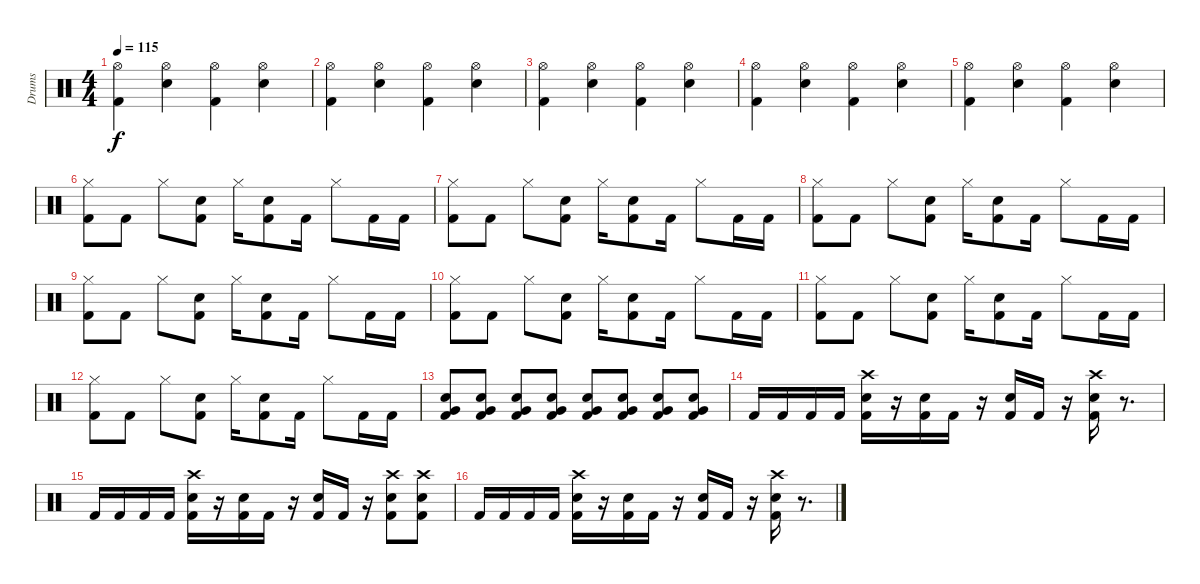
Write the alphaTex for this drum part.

\track ("Drums" "Drums") {instrument percussion}
\staff {score}
\articulation defaults
\ts (4 4)
\tempo 115
\clef neutral
\ks c
("Hi-Hat (open)" "Kick (hit) 2").4{dy f} ("Hi-Hat (open)" "Snare (hit) 2").4 ("Hi-Hat (open)" "Kick (hit) 2").4 ("Hi-Hat (open)" "Snare (hit) 2").4 |
("Hi-Hat (open)" "Kick (hit) 2").4 ("Hi-Hat (open)" "Snare (hit) 2").4 ("Hi-Hat (open)" "Kick (hit) 2").4 ("Hi-Hat (open)" "Snare (hit) 2").4 |
("Hi-Hat (open)" "Kick (hit) 2").4 ("Hi-Hat (open)" "Snare (hit) 2").4 ("Hi-Hat (open)" "Kick (hit) 2").4 ("Hi-Hat (open)" "Snare (hit) 2").4 |
("Hi-Hat (open)" "Kick (hit) 2").4 ("Hi-Hat (open)" "Snare (hit) 2").4 ("Hi-Hat (open)" "Kick (hit) 2").4 ("Hi-Hat (open)" "Snare (hit) 2").4 |
("Hi-Hat (open)" "Kick (hit) 2").4 ("Hi-Hat (open)" "Snare (hit) 2").4 ("Hi-Hat (open)" "Kick (hit) 2").4 ("Hi-Hat (open)" "Snare (hit) 2").4 |
("Hi-Hat (closed)" "Kick (hit) 2").8 "Kick (hit) 2".8 "Hi-Hat (closed)".8 ("Snare (hit) 2" "Kick (hit) 2").8 "Hi-Hat (closed)".16 ("Snare (hit) 2" "Kick (hit) 2").8 "Kick (hit) 2".16 "Hi-Hat (closed)".8 "Kick (hit) 2".16 "Kick (hit) 2".16 |
("Hi-Hat (closed)" "Kick (hit) 2").8 "Kick (hit) 2".8 "Hi-Hat (closed)".8 ("Snare (hit) 2" "Kick (hit) 2").8 "Hi-Hat (closed)".16 ("Snare (hit) 2" "Kick (hit) 2").8 "Kick (hit) 2".16 "Hi-Hat (closed)".8 "Kick (hit) 2".16 "Kick (hit) 2".16 |
("Hi-Hat (closed)" "Kick (hit) 2").8 "Kick (hit) 2".8 "Hi-Hat (closed)".8 ("Snare (hit) 2" "Kick (hit) 2").8 "Hi-Hat (closed)".16 ("Snare (hit) 2" "Kick (hit) 2").8 "Kick (hit) 2".16 "Hi-Hat (closed)".8 "Kick (hit) 2".16 "Kick (hit) 2".16 |
("Hi-Hat (closed)" "Kick (hit) 2").8 "Kick (hit) 2".8 "Hi-Hat (closed)".8 ("Snare (hit) 2" "Kick (hit) 2").8 "Hi-Hat (closed)".16 ("Snare (hit) 2" "Kick (hit) 2").8 "Kick (hit) 2".16 "Hi-Hat (closed)".8 "Kick (hit) 2".16 "Kick (hit) 2".16 |
("Hi-Hat (closed)" "Kick (hit) 2").8 "Kick (hit) 2".8 "Hi-Hat (closed)".8 ("Snare (hit) 2" "Kick (hit) 2").8 "Hi-Hat (closed)".16 ("Snare (hit) 2" "Kick (hit) 2").8 "Kick (hit) 2".16 "Hi-Hat (closed)".8 "Kick (hit) 2".16 "Kick (hit) 2".16 |
("Hi-Hat (closed)" "Kick (hit) 2").8 "Kick (hit) 2".8 "Hi-Hat (closed)".8 ("Snare (hit) 2" "Kick (hit) 2").8 "Hi-Hat (closed)".16 ("Snare (hit) 2" "Kick (hit) 2").8 "Kick (hit) 2".16 "Hi-Hat (closed)".8 "Kick (hit) 2".16 "Kick (hit) 2".16 |
("Hi-Hat (closed)" "Kick (hit) 2").8 "Kick (hit) 2".8 "Hi-Hat (closed)".8 ("Snare (hit) 2" "Kick (hit) 2").8 "Hi-Hat (closed)".16 ("Snare (hit) 2" "Kick (hit) 2").8 "Kick (hit) 2".16 "Hi-Hat (closed)".8 "Kick (hit) 2".16 "Kick (hit) 2".16 |
("Very Low Tom (hit)" "Snare (hit) 2" "Kick (hit) 2").8 ("Very Low Tom (hit)" "Snare (hit) 2" "Kick (hit) 2").8 ("Very Low Tom (hit)" "Snare (hit) 2" "Kick (hit) 2").8 ("Very Low Tom (hit)" "Snare (hit) 2" "Kick (hit) 2").8 ("Very Low Tom (hit)" "Snare (hit) 2" "Kick (hit) 2").8 ("Very Low Tom (hit)" "Snare (hit) 2" "Kick (hit) 2").8 ("Very Low Tom (hit)" "Snare (hit) 2" "Kick (hit) 2").8 ("Very Low Tom (hit)" "Snare (hit) 2" "Kick (hit) 2").8 |
"Kick (hit) 2".16 "Kick (hit) 2".16 "Kick (hit) 2".16 "Kick (hit) 2".16 ("Crash high (hit)" "Snare (hit) 2" "Kick (hit) 2").16 r.16 ("Snare (hit) 2" "Kick (hit) 2").16 "Kick (hit) 2".16 r.16 ("Snare (hit) 2" "Kick (hit) 2").16 "Kick (hit) 2".16 r.16 ("Crash high (hit)" "Snare (hit) 2" "Kick (hit) 2").16 r.8{d} |
"Kick (hit) 2".16 "Kick (hit) 2".16 "Kick (hit) 2".16 "Kick (hit) 2".16 ("Crash high (hit)" "Snare (hit) 2" "Kick (hit) 2").16 r.16 ("Snare (hit) 2" "Kick (hit) 2").16 "Kick (hit) 2".16 r.16 ("Snare (hit) 2" "Kick (hit) 2").16 "Kick (hit) 2".16 r.16 ("Crash high (hit)" "Snare (hit) 2" "Kick (hit) 2").8 ("Crash high (hit)" "Snare (hit) 2" "Kick (hit) 2").8 |
"Kick (hit) 2".16 "Kick (hit) 2".16 "Kick (hit) 2".16 "Kick (hit) 2".16 ("Crash high (hit)" "Snare (hit) 2" "Kick (hit) 2").16 r.16 ("Snare (hit) 2" "Kick (hit) 2").16 "Kick (hit) 2".16 r.16 ("Snare (hit) 2" "Kick (hit) 2").16 "Kick (hit) 2".16 r.16 ("Crash high (hit)" "Snare (hit) 2" "Kick (hit) 2").16 r.8{d}
